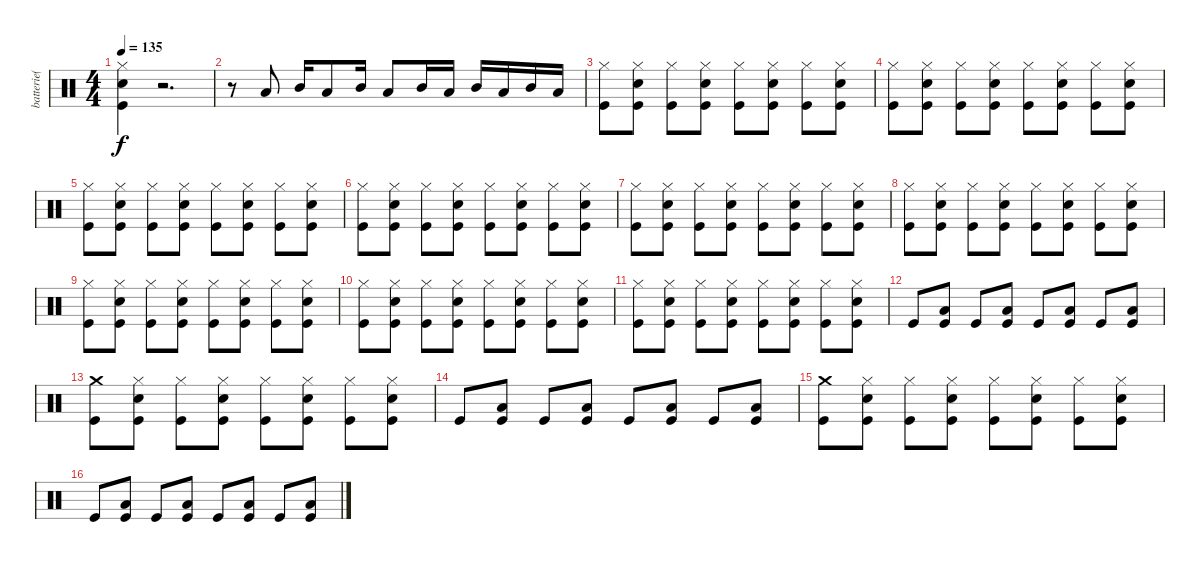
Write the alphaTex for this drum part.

\track ("batterie( Shane )" "batterie( ") {instrument percussion}
\staff {score}
\articulation defaults
\ts (4 4)
\tempo 135
\clef neutral
\ks c
("Hi-Hat (closed)" "Snare (hit) 2" "Kick (hit)").4{dy f} r.2{d} |
r.8 "Low Tom (hit)".8 "Mid Tom (hit)".16 "Low Tom (hit)".8 "Mid Tom (hit)".16 "Low Tom (hit)".8 "Mid Tom (hit)".16 "Low Tom (hit)".16 "Mid Tom (hit)".16 "Low Tom (hit)".16 "Mid Tom (hit)".16 "Low Tom (hit)".16 |
("Hi-Hat (closed)" "Kick (hit)").8 ("Hi-Hat (closed)" "Snare (hit) 2" "Kick (hit)").8 ("Hi-Hat (closed)" "Kick (hit)").8 ("Hi-Hat (closed)" "Snare (hit) 2" "Kick (hit)").8 ("Hi-Hat (closed)" "Kick (hit)").8 ("Hi-Hat (closed)" "Snare (hit) 2" "Kick (hit)").8 ("Hi-Hat (closed)" "Kick (hit)").8 ("Hi-Hat (closed)" "Snare (hit) 2" "Kick (hit)").8 |
("Hi-Hat (closed)" "Kick (hit)").8 ("Hi-Hat (closed)" "Snare (hit) 2" "Kick (hit)").8 ("Hi-Hat (closed)" "Kick (hit)").8 ("Hi-Hat (closed)" "Snare (hit) 2" "Kick (hit)").8 ("Hi-Hat (closed)" "Kick (hit)").8 ("Hi-Hat (closed)" "Snare (hit) 2" "Kick (hit)").8 ("Hi-Hat (closed)" "Kick (hit)").8 ("Hi-Hat (closed)" "Snare (hit) 2" "Kick (hit)").8 |
("Hi-Hat (closed)" "Kick (hit)").8 ("Hi-Hat (closed)" "Snare (hit) 2" "Kick (hit)").8 ("Hi-Hat (closed)" "Kick (hit)").8 ("Hi-Hat (closed)" "Snare (hit) 2" "Kick (hit)").8 ("Hi-Hat (closed)" "Kick (hit)").8 ("Hi-Hat (closed)" "Snare (hit) 2" "Kick (hit)").8 ("Hi-Hat (closed)" "Kick (hit)").8 ("Hi-Hat (closed)" "Snare (hit) 2" "Kick (hit)").8 |
("Hi-Hat (closed)" "Kick (hit)").8 ("Hi-Hat (closed)" "Snare (hit) 2" "Kick (hit)").8 ("Hi-Hat (closed)" "Kick (hit)").8 ("Hi-Hat (closed)" "Snare (hit) 2" "Kick (hit)").8 ("Hi-Hat (closed)" "Kick (hit)").8 ("Hi-Hat (closed)" "Snare (hit) 2" "Kick (hit)").8 ("Hi-Hat (closed)" "Kick (hit)").8 ("Hi-Hat (closed)" "Snare (hit) 2" "Kick (hit)").8 |
("Hi-Hat (closed)" "Kick (hit)").8 ("Hi-Hat (closed)" "Snare (hit) 2" "Kick (hit)").8 ("Hi-Hat (closed)" "Kick (hit)").8 ("Hi-Hat (closed)" "Snare (hit) 2" "Kick (hit)").8 ("Hi-Hat (closed)" "Kick (hit)").8 ("Hi-Hat (closed)" "Snare (hit) 2" "Kick (hit)").8 ("Hi-Hat (closed)" "Kick (hit)").8 ("Hi-Hat (closed)" "Snare (hit) 2" "Kick (hit)").8 |
("Hi-Hat (closed)" "Kick (hit)").8 ("Hi-Hat (closed)" "Snare (hit) 2" "Kick (hit)").8 ("Hi-Hat (closed)" "Kick (hit)").8 ("Hi-Hat (closed)" "Snare (hit) 2" "Kick (hit)").8 ("Hi-Hat (closed)" "Kick (hit)").8 ("Hi-Hat (closed)" "Snare (hit) 2" "Kick (hit)").8 ("Hi-Hat (closed)" "Kick (hit)").8 ("Hi-Hat (closed)" "Snare (hit) 2" "Kick (hit)").8 |
("Hi-Hat (closed)" "Kick (hit)").8 ("Hi-Hat (closed)" "Snare (hit) 2" "Kick (hit)").8 ("Hi-Hat (closed)" "Kick (hit)").8 ("Hi-Hat (closed)" "Snare (hit) 2" "Kick (hit)").8 ("Hi-Hat (closed)" "Kick (hit)").8 ("Hi-Hat (closed)" "Snare (hit) 2" "Kick (hit)").8 ("Hi-Hat (closed)" "Kick (hit)").8 ("Hi-Hat (closed)" "Snare (hit) 2" "Kick (hit)").8 |
("Hi-Hat (closed)" "Kick (hit)").8 ("Hi-Hat (closed)" "Snare (hit) 2" "Kick (hit)").8 ("Hi-Hat (closed)" "Kick (hit)").8 ("Hi-Hat (closed)" "Snare (hit) 2" "Kick (hit)").8 ("Hi-Hat (closed)" "Kick (hit)").8 ("Hi-Hat (closed)" "Snare (hit) 2" "Kick (hit)").8 ("Hi-Hat (closed)" "Kick (hit)").8 ("Hi-Hat (closed)" "Snare (hit) 2" "Kick (hit)").8 |
("Hi-Hat (closed)" "Kick (hit)").8 ("Hi-Hat (closed)" "Snare (hit) 2" "Kick (hit)").8 ("Hi-Hat (closed)" "Kick (hit)").8 ("Hi-Hat (closed)" "Snare (hit) 2" "Kick (hit)").8 ("Hi-Hat (closed)" "Kick (hit)").8 ("Hi-Hat (closed)" "Snare (hit) 2" "Kick (hit)").8 ("Hi-Hat (closed)" "Kick (hit)").8 ("Hi-Hat (closed)" "Snare (hit) 2" "Kick (hit)").8 |
"Kick (hit)".8 ("Low Floor Tom (hit)" "Kick (hit)").8 "Kick (hit)".8 ("Low Floor Tom (hit)" "Kick (hit)").8 "Kick (hit)".8 ("Low Floor Tom (hit)" "Kick (hit)").8 "Kick (hit)".8 ("Low Floor Tom (hit)" "Kick (hit)").8 |
("Crash medium (hit)" "Kick (hit)").8 ("Hi-Hat (closed)" "Snare (hit) 2" "Kick (hit)").8 ("Hi-Hat (closed)" "Kick (hit)").8 ("Hi-Hat (closed)" "Snare (hit) 2" "Kick (hit)").8 ("Hi-Hat (closed)" "Kick (hit)").8 ("Hi-Hat (closed)" "Snare (hit) 2" "Kick (hit)").8 ("Hi-Hat (closed)" "Kick (hit)").8 ("Hi-Hat (closed)" "Snare (hit) 2" "Kick (hit)").8 |
"Kick (hit)".8 ("Low Floor Tom (hit)" "Kick (hit)").8 "Kick (hit)".8 ("Low Floor Tom (hit)" "Kick (hit)").8 "Kick (hit)".8 ("Low Floor Tom (hit)" "Kick (hit)").8 "Kick (hit)".8 ("Low Floor Tom (hit)" "Kick (hit)").8 |
("Crash medium (hit)" "Kick (hit)").8 ("Hi-Hat (closed)" "Snare (hit) 2" "Kick (hit)").8 ("Hi-Hat (closed)" "Kick (hit)").8 ("Hi-Hat (closed)" "Snare (hit) 2" "Kick (hit)").8 ("Hi-Hat (closed)" "Kick (hit)").8 ("Hi-Hat (closed)" "Snare (hit) 2" "Kick (hit)").8 ("Hi-Hat (closed)" "Kick (hit)").8 ("Hi-Hat (closed)" "Snare (hit) 2" "Kick (hit)").8 |
"Kick (hit)".8 ("Low Floor Tom (hit)" "Kick (hit)").8 "Kick (hit)".8 ("Low Floor Tom (hit)" "Kick (hit)").8 "Kick (hit)".8 ("Low Floor Tom (hit)" "Kick (hit)").8 "Kick (hit)".8 ("Low Floor Tom (hit)" "Kick (hit)").8
